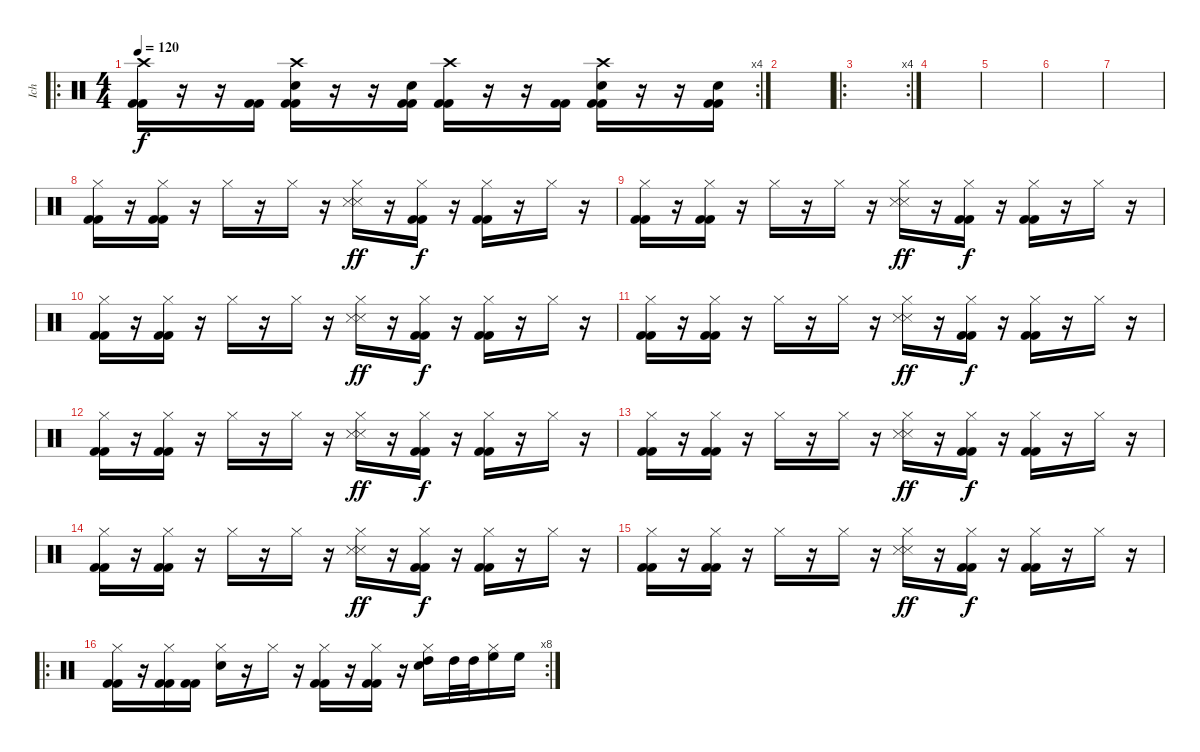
\track ("Ich" "Ich") {instrument percussion}
\staff {score}
\articulation defaults
\ro
\rc 4
\ts (4 4)
\tempo 120
\clef neutral
\ks c
("Crash high (hit)" "Kick (hit) 2" "Kick (hit) 2").16{dy f} r.16 r.16 ("Kick (hit) 2" "Kick (hit) 2").16 ("Crash high (hit)" "Kick (hit) 2" "Kick (hit) 2" "Snare (hit) 2").16 r.16 r.16 ("Snare (hit) 2" "Kick (hit) 2" "Kick (hit) 2").16 ("Crash high (hit)" "Kick (hit) 2" "Kick (hit) 2").16 r.16 r.16 ("Kick (hit) 2" "Kick (hit) 2").16 ("Crash high (hit)" "Kick (hit) 2" "Kick (hit) 2" "Snare (hit) 2").16 r.16 r.16 ("Snare (hit) 2" "Kick (hit) 2" "Kick (hit) 2").16 |
|
\ro
\rc 4
|
|
|
|
|
("Hi-Hat (closed)" "Kick (hit) 2" "Kick (hit) 2").16 r.16 ("Hi-Hat (closed)" "Kick (hit) 2" "Kick (hit) 2").16 r.16 "Hi-Hat (closed)".16 r.16 "Hi-Hat (closed)".16 r.16 ("Hi-Hat (closed)" "Snare (side stick) 3" "Snare (side stick) 3").16{dy ff} r.16 ("Hi-Hat (closed)" "Kick (hit) 2" "Kick (hit) 2").16{dy f} r.16 ("Hi-Hat (closed)" "Kick (hit) 2" "Kick (hit) 2").16 r.16 "Hi-Hat (closed)".16 r.16 |
("Hi-Hat (closed)" "Kick (hit) 2" "Kick (hit) 2").16 r.16 ("Hi-Hat (closed)" "Kick (hit) 2" "Kick (hit) 2").16 r.16 "Hi-Hat (closed)".16 r.16 "Hi-Hat (closed)".16 r.16 ("Hi-Hat (closed)" "Snare (side stick) 3" "Snare (side stick) 3").16{dy ff} r.16 ("Hi-Hat (closed)" "Kick (hit) 2" "Kick (hit) 2").16{dy f} r.16 ("Hi-Hat (closed)" "Kick (hit) 2" "Kick (hit) 2").16 r.16 "Hi-Hat (closed)".16 r.16 |
("Hi-Hat (closed)" "Kick (hit) 2" "Kick (hit) 2").16 r.16 ("Hi-Hat (closed)" "Kick (hit) 2" "Kick (hit) 2").16 r.16 "Hi-Hat (closed)".16 r.16 "Hi-Hat (closed)".16 r.16 ("Hi-Hat (closed)" "Snare (side stick) 3" "Snare (side stick) 3").16{dy ff} r.16 ("Hi-Hat (closed)" "Kick (hit) 2" "Kick (hit) 2").16{dy f} r.16 ("Hi-Hat (closed)" "Kick (hit) 2" "Kick (hit) 2").16 r.16 "Hi-Hat (closed)".16 r.16 |
("Hi-Hat (closed)" "Kick (hit) 2" "Kick (hit) 2").16 r.16 ("Hi-Hat (closed)" "Kick (hit) 2" "Kick (hit) 2").16 r.16 "Hi-Hat (closed)".16 r.16 "Hi-Hat (closed)".16 r.16 ("Hi-Hat (closed)" "Snare (side stick) 3" "Snare (side stick) 3").16{dy ff} r.16 ("Hi-Hat (closed)" "Kick (hit) 2" "Kick (hit) 2").16{dy f} r.16 ("Hi-Hat (closed)" "Kick (hit) 2" "Kick (hit) 2").16 r.16 "Hi-Hat (closed)".16 r.16 |
("Hi-Hat (closed)" "Kick (hit) 2" "Kick (hit) 2").16 r.16 ("Hi-Hat (closed)" "Kick (hit) 2" "Kick (hit) 2").16 r.16 "Hi-Hat (closed)".16 r.16 "Hi-Hat (closed)".16 r.16 ("Hi-Hat (closed)" "Snare (side stick) 3" "Snare (side stick) 3").16{dy ff} r.16 ("Hi-Hat (closed)" "Kick (hit) 2" "Kick (hit) 2").16{dy f} r.16 ("Hi-Hat (closed)" "Kick (hit) 2" "Kick (hit) 2").16 r.16 "Hi-Hat (closed)".16 r.16 |
("Hi-Hat (closed)" "Kick (hit) 2" "Kick (hit) 2").16 r.16 ("Hi-Hat (closed)" "Kick (hit) 2" "Kick (hit) 2").16 r.16 "Hi-Hat (closed)".16 r.16 "Hi-Hat (closed)".16 r.16 ("Hi-Hat (closed)" "Snare (side stick) 3" "Snare (side stick) 3").16{dy ff} r.16 ("Hi-Hat (closed)" "Kick (hit) 2" "Kick (hit) 2").16{dy f} r.16 ("Hi-Hat (closed)" "Kick (hit) 2" "Kick (hit) 2").16 r.16 "Hi-Hat (closed)".16 r.16 |
("Hi-Hat (closed)" "Kick (hit) 2" "Kick (hit) 2").16 r.16 ("Hi-Hat (closed)" "Kick (hit) 2" "Kick (hit) 2").16 r.16 "Hi-Hat (closed)".16 r.16 "Hi-Hat (closed)".16 r.16 ("Hi-Hat (closed)" "Snare (side stick) 3" "Snare (side stick) 3").16{dy ff} r.16 ("Hi-Hat (closed)" "Kick (hit) 2" "Kick (hit) 2").16{dy f} r.16 ("Hi-Hat (closed)" "Kick (hit) 2" "Kick (hit) 2").16 r.16 "Hi-Hat (closed)".16 r.16 |
("Hi-Hat (closed)" "Kick (hit) 2" "Kick (hit) 2").16 r.16 ("Hi-Hat (closed)" "Kick (hit) 2" "Kick (hit) 2").16 r.16 "Hi-Hat (closed)".16 r.16 "Hi-Hat (closed)".16 r.16 ("Hi-Hat (closed)" "Snare (side stick) 3" "Snare (side stick) 3").16{dy ff} r.16 ("Hi-Hat (closed)" "Kick (hit) 2" "Kick (hit) 2").16{dy f} r.16 ("Hi-Hat (closed)" "Kick (hit) 2" "Kick (hit) 2").16 r.16 "Hi-Hat (closed)".16 r.16 |
\ro
\rc 8
("Hi-Hat (closed)" "Kick (hit) 2" "Kick (hit) 2").16 r.16 ("Hi-Hat (closed)" "Kick (hit) 2" "Kick (hit) 2").16 ("Kick (hit) 2" "Kick (hit) 2").16 ("Hi-Hat (closed)" "Snare (hit) 2").16 r.16 "Hi-Hat (closed)".16 r.16 ("Hi-Hat (closed)" "Kick (hit) 2" "Kick (hit) 2").16 r.16 ("Hi-Hat (closed)" "Kick (hit) 2" "Kick (hit) 2").16 r.16 ("Hi-Hat (closed)" "High Tom (hit)" "Snare (hit) 2").16 "High Tom (hit)".32 "High Tom (hit)".32 ("Hi-Hat (closed)" "High Floor Tom (hit)").16 "High Floor Tom (hit)".16
